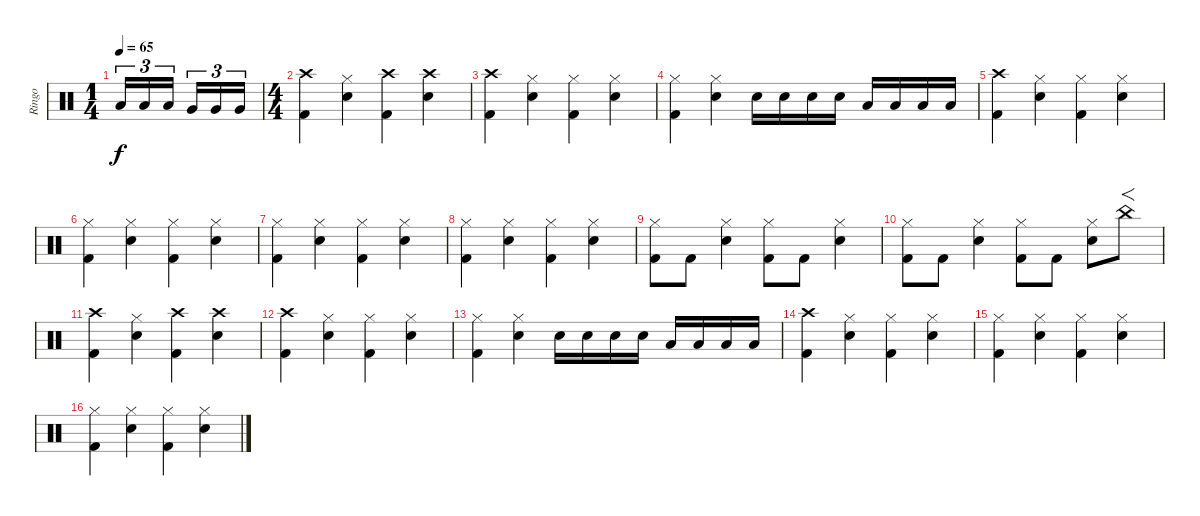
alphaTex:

\track ("Ringo" "Ringo") {instrument percussion}
\staff {score}
\articulation defaults
\ts (1 4)
\tempo 65
\clef neutral
\ks c "Low Tom (hit)".16{tu (3 2) dy f} "Low Tom (hit)".16{tu (3 2)} "Low Tom (hit)".16{tu (3 2)} "Very Low Tom (hit)".16{tu (3 2)} "Very Low Tom (hit)".16{tu (3 2)} "Very Low Tom (hit)".16{tu (3 2)}
|
\ts (4 4)
("Crash high (hit)" "Kick (hit) 2").4 ("Hi-Hat (closed)" "Snare (hit) 2").4 ("Crash high (hit)" "Kick (hit) 2").4 ("Crash high (hit)" "Snare (hit) 2").4 |
("Crash high (hit)" "Kick (hit) 2").4 ("Hi-Hat (closed)" "Snare (hit) 2").4 ("Hi-Hat (closed)" "Kick (hit) 2").4 ("Hi-Hat (closed)" "Snare (hit) 2").4 |
("Hi-Hat (closed)" "Kick (hit) 2").4 ("Hi-Hat (closed)" "Snare (hit) 2").4 "Snare (hit) 2".16 "Snare (hit) 2".16 "Snare (hit) 2".16 "Snare (hit) 2".16 "Low Tom (hit)".16 "Low Tom (hit)".16 "Low Tom (hit)".16 "Low Tom (hit)".16 |
("Crash high (hit)" "Kick (hit) 2").4 ("Hi-Hat (closed)" "Snare (hit) 2").4 ("Hi-Hat (closed)" "Kick (hit) 2").4 ("Hi-Hat (closed)" "Snare (hit) 2").4 |
("Hi-Hat (closed)" "Kick (hit) 2").4 ("Hi-Hat (closed)" "Snare (hit) 2").4 ("Hi-Hat (closed)" "Kick (hit) 2").4 ("Hi-Hat (closed)" "Snare (hit) 2").4 |
("Hi-Hat (closed)" "Kick (hit) 2").4 ("Hi-Hat (closed)" "Snare (hit) 2").4 ("Hi-Hat (closed)" "Kick (hit) 2").4 ("Hi-Hat (closed)" "Snare (hit) 2").4 |
("Hi-Hat (closed)" "Kick (hit) 2").4 ("Hi-Hat (closed)" "Snare (hit) 2").4 ("Hi-Hat (closed)" "Kick (hit) 2").4 ("Hi-Hat (closed)" "Snare (hit) 2").4 |
("Hi-Hat (closed)" "Kick (hit) 2").8 "Kick (hit) 2".8 ("Hi-Hat (closed)" "Snare (hit) 2").4 ("Hi-Hat (closed)" "Kick (hit) 2").8 "Kick (hit) 2".8 ("Hi-Hat (closed)" "Snare (hit) 2").4 |
("Hi-Hat (closed)" "Kick (hit) 2").8 "Kick (hit) 2".8 ("Hi-Hat (closed)" "Snare (hit) 2").4 ("Hi-Hat (closed)" "Kick (hit) 2").8 "Kick (hit) 2".8 ("Hi-Hat (closed)" "Snare (hit) 2").8 "China (hit)".8{f} |
("Crash high (hit)" "Kick (hit) 2").4 ("Hi-Hat (closed)" "Snare (hit) 2").4 ("Crash high (hit)" "Kick (hit) 2").4 ("Crash high (hit)" "Snare (hit) 2").4 |
("Crash high (hit)" "Kick (hit) 2").4 ("Hi-Hat (closed)" "Snare (hit) 2").4 ("Hi-Hat (closed)" "Kick (hit) 2").4 ("Hi-Hat (closed)" "Snare (hit) 2").4 |
("Hi-Hat (closed)" "Kick (hit) 2").4 ("Hi-Hat (closed)" "Snare (hit) 2").4 "Snare (hit) 2".16 "Snare (hit) 2".16 "Snare (hit) 2".16 "Snare (hit) 2".16 "Low Tom (hit)".16 "Low Tom (hit)".16 "Low Tom (hit)".16 "Low Tom (hit)".16 |
("Crash high (hit)" "Kick (hit) 2").4 ("Hi-Hat (closed)" "Snare (hit) 2").4 ("Hi-Hat (closed)" "Kick (hit) 2").4 ("Hi-Hat (closed)" "Snare (hit) 2").4 |
("Hi-Hat (closed)" "Kick (hit) 2").4 ("Hi-Hat (closed)" "Snare (hit) 2").4 ("Hi-Hat (closed)" "Kick (hit) 2").4 ("Hi-Hat (closed)" "Snare (hit) 2").4 |
("Hi-Hat (closed)" "Kick (hit) 2").4 ("Hi-Hat (closed)" "Snare (hit) 2").4 ("Hi-Hat (closed)" "Kick (hit) 2").4 ("Hi-Hat (closed)" "Snare (hit) 2").4
